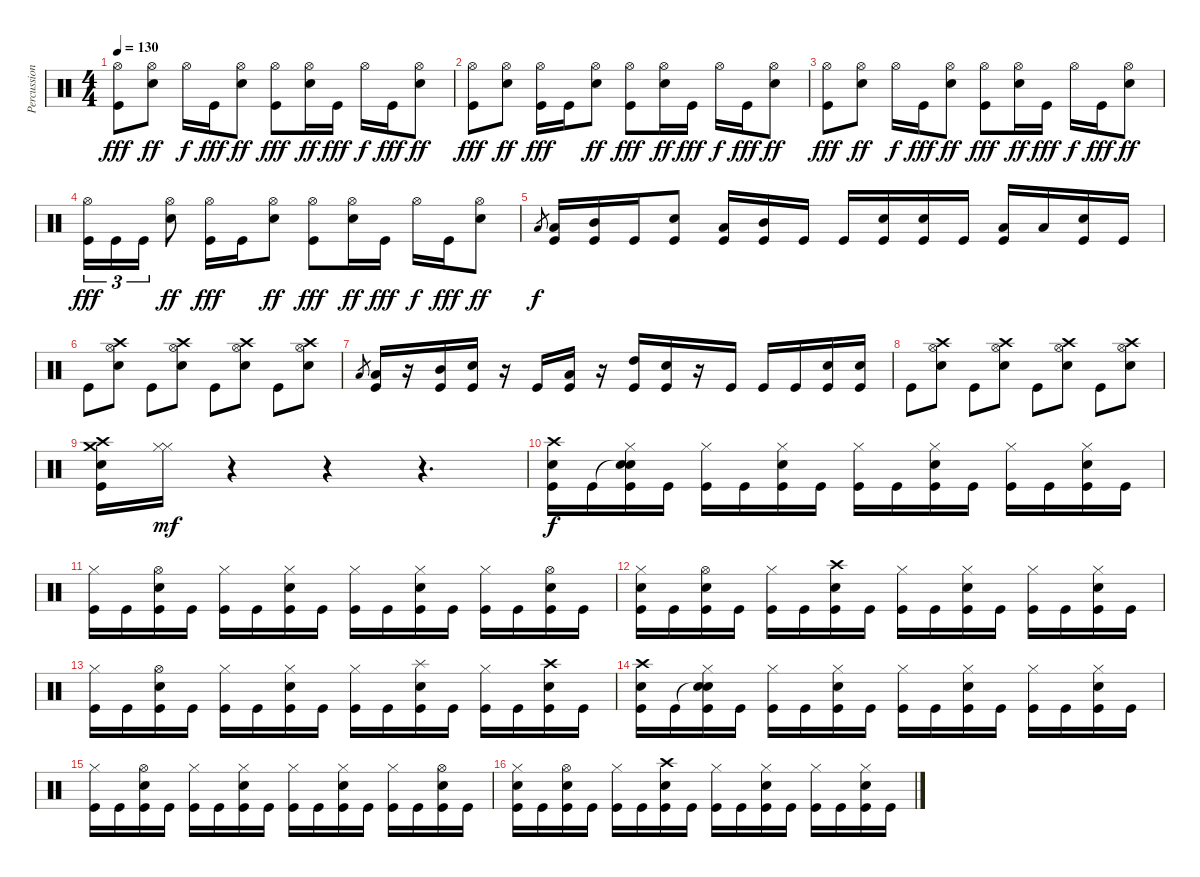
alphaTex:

\track ("Percussion" "Percussion") {instrument percussion}
\staff {score}
\articulation defaults
\ts (4 4)
\tempo 130
\clef neutral
\ks c
("Hi-Hat (open)" "Kick (hit)").8{dy fff} ("Hi-Hat (open)" "Snare (hit) 2").8{dy ff} "Hi-Hat (open)".16{dy f} "Kick (hit)".16{dy fff} ("Hi-Hat (open)" "Snare (hit) 2").8{dy ff} ("Hi-Hat (open)" "Kick (hit)").8{dy fff} ("Hi-Hat (open)" "Snare (hit) 2").16{dy ff} "Kick (hit)".16{dy fff} "Hi-Hat (open)".16{dy f} "Kick (hit)".16{dy fff} ("Hi-Hat (open)" "Snare (hit) 2").8{dy ff} |
("Hi-Hat (open)" "Kick (hit)").8{dy fff} ("Hi-Hat (open)" "Snare (hit) 2").8{dy ff} ("Hi-Hat (open)" "Kick (hit)").16{dy fff} "Kick (hit)".16 ("Hi-Hat (open)" "Snare (hit) 2").8{dy ff} ("Hi-Hat (open)" "Kick (hit)").8{dy fff} ("Hi-Hat (open)" "Snare (hit) 2").16{dy ff} "Kick (hit)".16{dy fff} "Hi-Hat (open)".16{dy f} "Kick (hit)".16{dy fff} ("Hi-Hat (open)" "Snare (hit) 2").8{dy ff} |
("Hi-Hat (open)" "Kick (hit)").8{dy fff} ("Hi-Hat (open)" "Snare (hit) 2").8{dy ff} "Hi-Hat (open)".16{dy f} "Kick (hit)".16{dy fff} ("Hi-Hat (open)" "Snare (hit) 2").8{dy ff} ("Hi-Hat (open)" "Kick (hit)").8{dy fff} ("Hi-Hat (open)" "Snare (hit) 2").16{dy ff} "Kick (hit)".16{dy fff} "Hi-Hat (open)".16{dy f} "Kick (hit)".16{dy fff} ("Hi-Hat (open)" "Snare (hit) 2").8{dy ff} |
("Hi-Hat (open)" "Kick (hit)").16{tu (3 2) dy fff} "Kick (hit)".16{tu (3 2)} "Kick (hit)".16{tu (3 2)} ("Hi-Hat (open)" "Snare (hit) 2").8{dy ff} ("Hi-Hat (open)" "Kick (hit)").16{dy fff} "Kick (hit)".16 ("Hi-Hat (open)" "Snare (hit) 2").8{dy ff} ("Hi-Hat (open)" "Kick (hit)").8{dy fff} ("Hi-Hat (open)" "Snare (hit) 2").16{dy ff} "Kick (hit)".16{dy fff} "Hi-Hat (open)".16{dy f} "Kick (hit)".16{dy fff} ("Hi-Hat (open)" "Snare (hit) 2").8{dy ff} |
"Low Tom (hit)".8{gr dy f} ("Low Tom (hit)" "Kick (hit)").16 ("Mid Tom (hit)" "Kick (hit)").16 "Kick (hit)".16 ("Snare (hit) 2" "Kick (hit)").8 ("Low Tom (hit)" "Kick (hit)").16 ("Mid Tom (hit)" "Kick (hit)").16 "Kick (hit)".16 "Kick (hit)".16 ("Snare (hit) 2" "Kick (hit)").16 ("Snare (hit) 2" "Kick (hit)").16 "Kick (hit)".16 ("Low Tom (hit)" "Kick (hit)").16 "Low Tom (hit)".16 ("Snare (hit) 2" "Kick (hit)").16 "Kick (hit)".16 |
"Kick (hit)".8 ("Hi-Hat (open)" "Crash high (hit)" "Snare (hit) 2").8 "Kick (hit)".8 ("Hi-Hat (open)" "Crash high (hit)" "Snare (hit) 2").8 "Kick (hit)".8 ("Hi-Hat (open)" "Crash high (hit)" "Snare (hit) 2").8 "Kick (hit)".8 ("Hi-Hat (open)" "Crash high (hit)" "Snare (hit) 2").8 |
"Low Tom (hit)".8{gr} ("Low Tom (hit)" "Kick (hit)").16 r.16 ("Mid Tom (hit)" "Kick (hit)").16 ("Snare (hit) 2" "Kick (hit)").16 r.16 "Kick (hit)".16 ("Low Tom (hit)" "Kick (hit)").16 r.16 ("High Tom (hit)" "Kick (hit)").16 ("Snare (hit) 2" "Kick (hit)").16 r.16 "Kick (hit)".16 "Kick (hit)".16 "Kick (hit)".16 ("Snare (hit) 2" "Kick (hit)").16 ("Snare (hit) 2" "Kick (hit)").16 |
"Kick (hit)".8 ("Hi-Hat (open)" "Crash high (hit)" "Snare (hit) 2").8 "Kick (hit)".8 ("Hi-Hat (open)" "Crash high (hit)" "Snare (hit) 2").8 "Kick (hit)".8 ("Hi-Hat (open)" "Crash high (hit)" "Snare (hit) 2").8 "Kick (hit)".8 ("Hi-Hat (open)" "Crash high (hit)" "Snare (hit) 2").8 |
("Crash high (hit)" "Crash medium (hit)" "Snare (hit) 2" "Kick (hit)").16 ("Hi-Hat (closed)" "Hi-Hat (closed)").16{dy mf} r.4 r.4 r.4{d} |
("Crash high (hit)" "Snare (hit) 2" "Kick (hit)").16{dy f} "Kick (hit)".16 ("Snare (hit)"{t} "Hi-Hat (closed)" "Snare (hit) 2" "Kick (hit)").16 "Kick (hit)".16 ("Hi-Hat (closed)" "Kick (hit)").16 "Kick (hit)".16 ("Hi-Hat (closed)" "Snare (hit) 2" "Kick (hit)").16 "Kick (hit)".16 ("Hi-Hat (closed)" "Kick (hit)").16 "Kick (hit)".16 ("Hi-Hat (closed)" "Snare (hit) 2" "Kick (hit)").16 "Kick (hit)".16 ("Hi-Hat (closed)" "Kick (hit)").16 "Kick (hit)".16 ("Hi-Hat (closed)" "Snare (hit) 2" "Kick (hit)").16 "Kick (hit)".16 |
("Hi-Hat (closed)" "Kick (hit)").16 "Kick (hit)".16 ("Hi-Hat (open)" "Snare (hit) 2" "Kick (hit)").16 "Kick (hit)".16 ("Hi-Hat (closed)" "Kick (hit)").16 "Kick (hit)".16 ("Hi-Hat (closed)" "Snare (hit) 2" "Kick (hit)").16 "Kick (hit)".16 ("Hi-Hat (closed)" "Kick (hit)").16 "Kick (hit)".16 ("Hi-Hat (closed)" "Snare (hit) 2" "Kick (hit)").16 "Kick (hit)".16 ("Hi-Hat (closed)" "Kick (hit)").16 "Kick (hit)".16 ("Hi-Hat (open)" "Snare (hit) 2" "Kick (hit)").16 "Kick (hit)".16 |
("Hi-Hat (closed)" "Snare (hit) 2" "Kick (hit)").16 "Kick (hit)".16 ("Hi-Hat (open)" "Snare (hit) 2" "Kick (hit)").16 "Kick (hit)".16 ("Hi-Hat (closed)" "Kick (hit)").16 "Kick (hit)".16 ("Crash high (hit)" "Snare (hit) 2" "Kick (hit)").16 "Kick (hit)".16 ("Hi-Hat (closed)" "Kick (hit)").16 "Kick (hit)".16 ("Hi-Hat (closed)" "Snare (hit) 2" "Kick (hit)").16 "Kick (hit)".16 ("Hi-Hat (closed)" "Kick (hit)").16 "Kick (hit)".16 ("Hi-Hat (closed)" "Snare (hit) 2" "Kick (hit)").16 "Kick (hit)".16 |
("Hi-Hat (closed)" "Kick (hit)").16 "Kick (hit)".16 ("Hi-Hat (open)" "Snare (hit) 2" "Kick (hit)").16 "Kick (hit)".16 ("Hi-Hat (closed)" "Kick (hit)").16 "Kick (hit)".16 ("Hi-Hat (closed)" "Snare (hit) 2" "Kick (hit)").16 "Kick (hit)".16 ("Hi-Hat (closed)" "Kick (hit)").16 "Kick (hit)".16 ("Splash (hit)" "Snare (hit) 2" "Kick (hit)").16 "Kick (hit)".16 ("Hi-Hat (closed)" "Kick (hit)").16 "Kick (hit)".16 ("Crash high (hit)" "Snare (hit) 2" "Kick (hit)").16 "Kick (hit)".16 |
("Crash high (hit)" "Snare (hit) 2" "Kick (hit)").16 "Kick (hit)".16 ("Snare (hit)"{t} "Hi-Hat (closed)" "Snare (hit) 2" "Kick (hit)").16 "Kick (hit)".16 ("Hi-Hat (closed)" "Kick (hit)").16 "Kick (hit)".16 ("Hi-Hat (closed)" "Snare (hit) 2" "Kick (hit)").16 "Kick (hit)".16 ("Hi-Hat (closed)" "Kick (hit)").16 "Kick (hit)".16 ("Hi-Hat (closed)" "Snare (hit) 2" "Kick (hit)").16 "Kick (hit)".16 ("Hi-Hat (closed)" "Kick (hit)").16 "Kick (hit)".16 ("Hi-Hat (closed)" "Snare (hit) 2" "Kick (hit)").16 "Kick (hit)".16 |
("Hi-Hat (closed)" "Kick (hit)").16 "Kick (hit)".16 ("Hi-Hat (open)" "Snare (hit) 2" "Kick (hit)").16 "Kick (hit)".16 ("Hi-Hat (closed)" "Kick (hit)").16 "Kick (hit)".16 ("Hi-Hat (closed)" "Snare (hit) 2" "Kick (hit)").16 "Kick (hit)".16 ("Hi-Hat (closed)" "Kick (hit)").16 "Kick (hit)".16 ("Hi-Hat (closed)" "Snare (hit) 2" "Kick (hit)").16 "Kick (hit)".16 ("Hi-Hat (closed)" "Kick (hit)").16 "Kick (hit)".16 ("Hi-Hat (open)" "Snare (hit) 2" "Kick (hit)").16 "Kick (hit)".16 |
("Hi-Hat (closed)" "Snare (hit) 2" "Kick (hit)").16 "Kick (hit)".16 ("Hi-Hat (open)" "Snare (hit) 2" "Kick (hit)").16 "Kick (hit)".16 ("Hi-Hat (closed)" "Kick (hit)").16 "Kick (hit)".16 ("Crash high (hit)" "Snare (hit) 2" "Kick (hit)").16 "Kick (hit)".16 ("Hi-Hat (closed)" "Kick (hit)").16 "Kick (hit)".16 ("Hi-Hat (closed)" "Snare (hit) 2" "Kick (hit)").16 "Kick (hit)".16 ("Hi-Hat (closed)" "Kick (hit)").16 "Kick (hit)".16 ("Hi-Hat (closed)" "Snare (hit) 2" "Kick (hit)").16 "Kick (hit)".16
